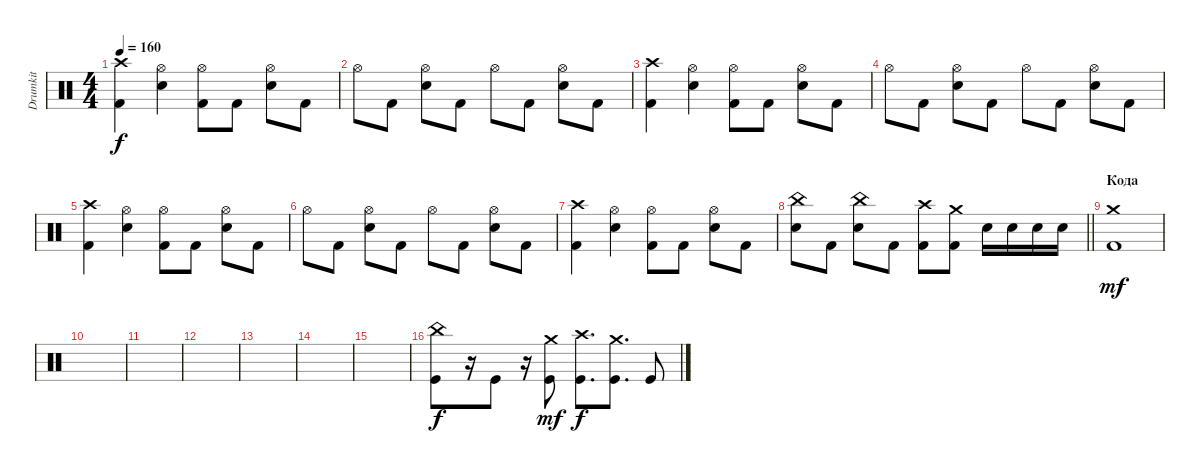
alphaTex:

\track ("Drumkit" "Drumkit") {instrument percussion}
\staff {score}
\articulation defaults
\ts (4 4)
\tempo 160
\clef neutral
\ks c
("Crash high (hit)" "Kick (hit) 2").4{dy f} ("Hi-Hat (open)" "Electric Snare (hit)").4 ("Hi-Hat (open)" "Kick (hit) 2").8 "Kick (hit) 2".8 ("Hi-Hat (open)" "Electric Snare (hit)").8 "Kick (hit) 2".8 |
"Hi-Hat (open)".8 "Kick (hit) 2".8 ("Hi-Hat (open)" "Electric Snare (hit)").8 "Kick (hit) 2".8 "Hi-Hat (open)".8 "Kick (hit) 2".8 ("Hi-Hat (open)" "Electric Snare (hit)").8 "Kick (hit) 2".8 |
("Crash high (hit)" "Kick (hit) 2").4 ("Hi-Hat (open)" "Electric Snare (hit)").4 ("Hi-Hat (open)" "Kick (hit) 2").8 "Kick (hit) 2".8 ("Hi-Hat (open)" "Electric Snare (hit)").8 "Kick (hit) 2".8 |
"Hi-Hat (open)".8 "Kick (hit) 2".8 ("Hi-Hat (open)" "Electric Snare (hit)").8 "Kick (hit) 2".8 "Hi-Hat (open)".8 "Kick (hit) 2".8 ("Hi-Hat (open)" "Electric Snare (hit)").8 "Kick (hit) 2".8 |
("Crash high (hit)" "Kick (hit) 2").4 ("Hi-Hat (open)" "Electric Snare (hit)").4 ("Hi-Hat (open)" "Kick (hit) 2").8 "Kick (hit) 2".8 ("Hi-Hat (open)" "Electric Snare (hit)").8 "Kick (hit) 2".8 |
"Hi-Hat (open)".8 "Kick (hit) 2".8 ("Hi-Hat (open)" "Electric Snare (hit)").8 "Kick (hit) 2".8 "Hi-Hat (open)".8 "Kick (hit) 2".8 ("Hi-Hat (open)" "Electric Snare (hit)").8 "Kick (hit) 2".8 |
("Crash high (hit)" "Kick (hit) 2").4 ("Hi-Hat (open)" "Electric Snare (hit)").4 ("Hi-Hat (open)" "Kick (hit) 2").8 "Kick (hit) 2".8 ("Hi-Hat (open)" "Electric Snare (hit)").8 "Kick (hit) 2".8 |
\barLineRight lightlight
("China (hit)" "Electric Snare (hit)").8 "Kick (hit) 2".8 ("China (hit)" "Electric Snare (hit)").8 "Kick (hit) 2".8 ("Crash high (hit)" "Kick (hit) 2").8 ("Crash medium (hit)" "Kick (hit) 2").8 "Electric Snare (hit)".16 "Electric Snare (hit)".16 "Electric Snare (hit)".16 "Electric Snare (hit)".16 |
\section ("" "Кода")
("Crash medium (hit)" "Kick (hit) 2").1{dy mf} |
|
|
|
|
|
|
("China (hit)" "Kick (hit)").8{dy f} r.16 "Kick (hit)".8 r.16 ("Crash medium (hit)" "Kick (hit)").8{dy mf} ("Crash high (hit)" "Kick (hit)").8{d dy f} ("Crash medium (hit)" "Kick (hit)").8{d} "Kick (hit)".8
